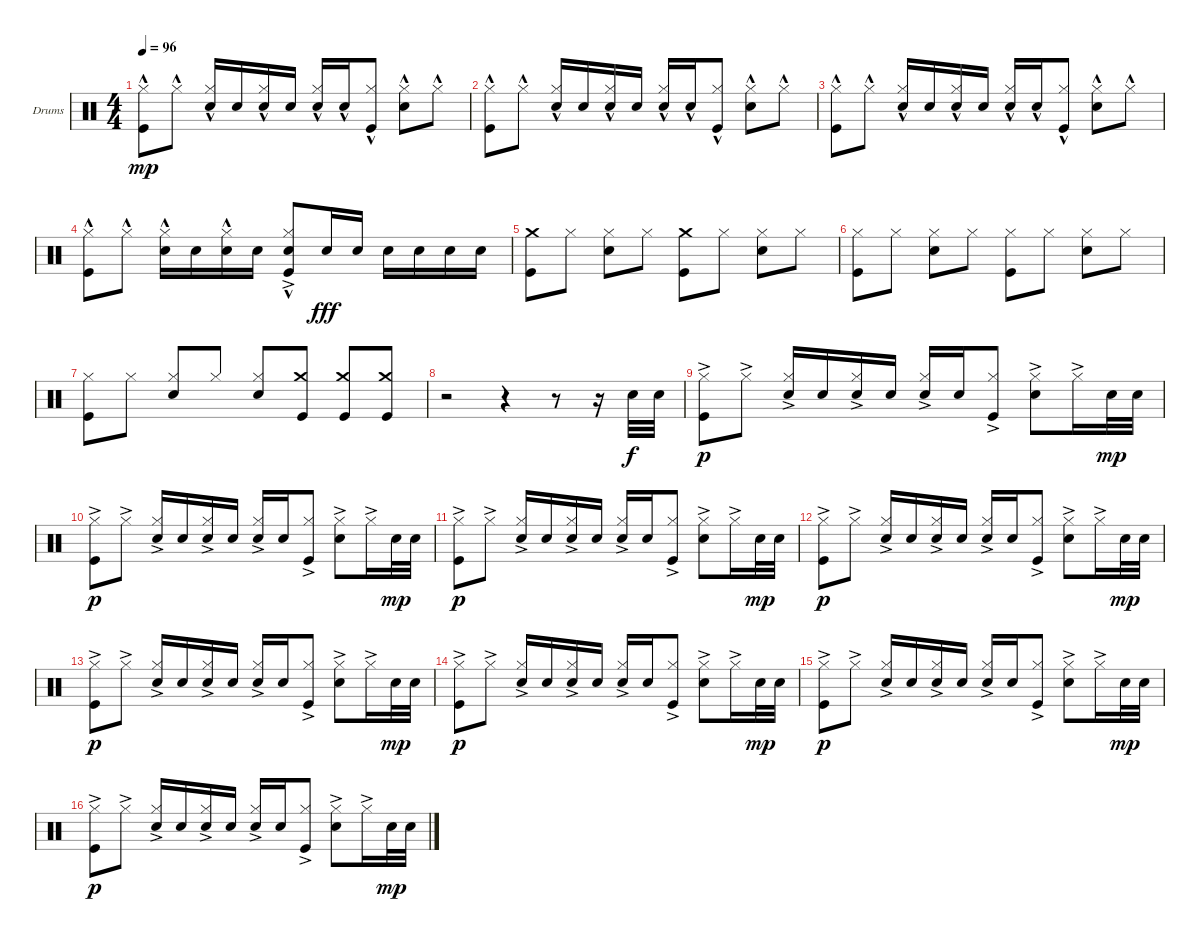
\defaultSystemsLayout 4
\bracketExtendMode groupsimilarinstruments
\firstSystemTrackNameOrientation horizontal
\otherSystemsTrackNameOrientation horizontal
\track ("Drumkit" "Drums") {instrument percussion}
\staff {score}
\articulation defaults
\ts (4 4)
\tempo 96
\clef neutral
\ks c
("Kick (hit)"{hac} "Hi-Hat (closed)"{hac}).8{dy mp} "Hi-Hat (closed)"{hac}.8 ("Hi-Hat (closed)"{hac} "Snare (hit) 2"{hac}).16 "Snare (hit) 2".16 ("Snare (hit) 2" "Hi-Hat (closed)"{hac}).16 "Snare (hit) 2".16 ("Hi-Hat (closed)"{hac} "Snare (hit) 2").16{beam invert} "Snare (hit) 2"{hac}.16 ("Hi-Hat (closed)"{hac} "Kick (hit)"{hac}).8 ("Snare (hit) 2"{hac} "Hi-Hat (closed)"{hac}).8 "Hi-Hat (closed)"{hac}.8 |
("Kick (hit)"{hac} "Hi-Hat (closed)"{hac}).8 "Hi-Hat (closed)"{hac}.8 ("Hi-Hat (closed)"{hac} "Snare (hit) 2"{hac}).16 "Snare (hit) 2".16 ("Snare (hit) 2" "Hi-Hat (closed)"{hac}).16 "Snare (hit) 2".16 ("Hi-Hat (closed)"{hac} "Snare (hit) 2").16{beam invert} "Snare (hit) 2"{hac}.16 ("Hi-Hat (closed)"{hac} "Kick (hit)"{hac}).8 ("Snare (hit) 2"{hac} "Hi-Hat (closed)"{hac}).8 "Hi-Hat (closed)"{hac}.8 |
("Kick (hit)"{hac} "Hi-Hat (closed)"{hac}).8 "Hi-Hat (closed)"{hac}.8 ("Hi-Hat (closed)"{hac} "Snare (hit) 2"{hac}).16 "Snare (hit) 2".16 ("Snare (hit) 2" "Hi-Hat (closed)"{hac}).16 "Snare (hit) 2".16 ("Hi-Hat (closed)"{hac} "Snare (hit) 2").16{beam invert} "Snare (hit) 2"{hac}.16 ("Hi-Hat (closed)"{hac} "Kick (hit)"{hac}).8 ("Snare (hit) 2"{hac} "Hi-Hat (closed)"{hac}).8 "Hi-Hat (closed)"{hac}.8 |
("Kick (hit)"{hac} "Hi-Hat (closed)"{hac}).8 "Hi-Hat (closed)"{hac}.8 ("Hi-Hat (closed)"{hac} "Snare (hit) 2"{hac}).16 "Snare (hit) 2".16 ("Snare (hit) 2" "Hi-Hat (closed)"{hac}).16 "Snare (hit) 2".16 ("Kick (hit)"{ac} "Snare (hit) 2" "Hi-Hat (closed)"{hac}).8 "Snare (hit) 2".16{dy fff} "Snare (hit) 2".16 "Snare (hit) 2".16 "Snare (hit) 2".16 "Snare (hit) 2".16 "Snare (hit) 2".16 |
("Crash medium (hit)" "Kick (hit)").8 "Hi-Hat (closed)".8 ("Hi-Hat (closed)" "Snare (hit) 2").8 "Hi-Hat (closed)".8 ("Crash medium (hit)" "Kick (hit)").8 "Hi-Hat (closed)".8 ("Hi-Hat (closed)" "Snare (hit) 2").8 "Hi-Hat (closed)".8 |
("Kick (hit)" "Hi-Hat (closed)").8 "Hi-Hat (closed)".8 ("Hi-Hat (closed)" "Snare (hit) 2").8 "Hi-Hat (closed)".8 ("Kick (hit)" "Hi-Hat (closed)").8 "Hi-Hat (closed)".8 ("Hi-Hat (closed)" "Snare (hit) 2").8 "Hi-Hat (closed)".8 |
("Kick (hit)" "Hi-Hat (closed)").8 "Hi-Hat (closed)".8 ("Hi-Hat (closed)" "Snare (hit) 2").8 "Hi-Hat (closed)".8 ("Hi-Hat (closed)" "Snare (hit) 2").8{beam invert} ("Crash medium (hit)" "Kick (hit)").8 ("Crash medium (hit)" "Kick (hit)").8{beam invert} ("Crash medium (hit)" "Kick (hit)").8 |
r.2 r.4 r.8 r.16 "Snare (hit) 2".32{dy f} "Snare (hit) 2".32 |
("Hi-Hat (closed)"{ac} "Kick (hit)"{ac}).8{dy p} "Hi-Hat (closed)"{ac}.8 ("Hi-Hat (closed)"{ac} "Snare (hit) 2"{ac}).16 "Snare (hit) 2".16 ("Snare (hit) 2" "Hi-Hat (closed)"{ac}).16 "Snare (hit) 2".16 ("Hi-Hat (closed)"{ac} "Snare (hit) 2").16{beam invert} "Snare (hit) 2".16 ("Hi-Hat (closed)"{ac} "Kick (hit)").8 ("Snare (hit) 2"{ac} "Hi-Hat (closed)"{ac}).8 "Hi-Hat (closed)"{ac}.16 "Snare (hit) 2".32{dy mp} "Snare (hit) 2".32 |
("Hi-Hat (closed)"{ac} "Kick (hit)"{ac}).8{dy p} "Hi-Hat (closed)"{ac}.8 ("Hi-Hat (closed)"{ac} "Snare (hit) 2"{ac}).16 "Snare (hit) 2".16 ("Snare (hit) 2" "Hi-Hat (closed)"{ac}).16 "Snare (hit) 2".16 ("Hi-Hat (closed)"{ac} "Snare (hit) 2").16{beam invert} "Snare (hit) 2".16 ("Hi-Hat (closed)"{ac} "Kick (hit)").8 ("Snare (hit) 2"{ac} "Hi-Hat (closed)"{ac}).8 "Hi-Hat (closed)"{ac}.16 "Snare (hit) 2".32{dy mp} "Snare (hit) 2".32 |
("Hi-Hat (closed)"{ac} "Kick (hit)"{ac}).8{dy p} "Hi-Hat (closed)"{ac}.8 ("Hi-Hat (closed)"{ac} "Snare (hit) 2"{ac}).16 "Snare (hit) 2".16 ("Snare (hit) 2" "Hi-Hat (closed)"{ac}).16 "Snare (hit) 2".16 ("Hi-Hat (closed)"{ac} "Snare (hit) 2").16{beam invert} "Snare (hit) 2".16 ("Hi-Hat (closed)"{ac} "Kick (hit)").8 ("Snare (hit) 2"{ac} "Hi-Hat (closed)"{ac}).8 "Hi-Hat (closed)"{ac}.16 "Snare (hit) 2".32{dy mp} "Snare (hit) 2".32 |
("Hi-Hat (closed)"{ac} "Kick (hit)"{ac}).8{dy p} "Hi-Hat (closed)"{ac}.8 ("Hi-Hat (closed)"{ac} "Snare (hit) 2"{ac}).16 "Snare (hit) 2".16 ("Snare (hit) 2" "Hi-Hat (closed)"{ac}).16 "Snare (hit) 2".16 ("Hi-Hat (closed)"{ac} "Snare (hit) 2").16{beam invert} "Snare (hit) 2".16 ("Hi-Hat (closed)"{ac} "Kick (hit)").8 ("Snare (hit) 2"{ac} "Hi-Hat (closed)"{ac}).8 "Hi-Hat (closed)"{ac}.16 "Snare (hit) 2".32{dy mp} "Snare (hit) 2".32 |
("Hi-Hat (closed)"{ac} "Kick (hit)"{ac}).8{dy p} "Hi-Hat (closed)"{ac}.8 ("Hi-Hat (closed)"{ac} "Snare (hit) 2"{ac}).16 "Snare (hit) 2".16 ("Snare (hit) 2" "Hi-Hat (closed)"{ac}).16 "Snare (hit) 2".16 ("Hi-Hat (closed)"{ac} "Snare (hit) 2").16{beam invert} "Snare (hit) 2".16 ("Hi-Hat (closed)"{ac} "Kick (hit)").8 ("Snare (hit) 2"{ac} "Hi-Hat (closed)"{ac}).8 "Hi-Hat (closed)"{ac}.16 "Snare (hit) 2".32{dy mp} "Snare (hit) 2".32 |
("Hi-Hat (closed)"{ac} "Kick (hit)"{ac}).8{dy p} "Hi-Hat (closed)"{ac}.8 ("Hi-Hat (closed)"{ac} "Snare (hit) 2"{ac}).16 "Snare (hit) 2".16 ("Snare (hit) 2" "Hi-Hat (closed)"{ac}).16 "Snare (hit) 2".16 ("Hi-Hat (closed)"{ac} "Snare (hit) 2").16{beam invert} "Snare (hit) 2".16 ("Hi-Hat (closed)"{ac} "Kick (hit)").8 ("Snare (hit) 2"{ac} "Hi-Hat (closed)"{ac}).8 "Hi-Hat (closed)"{ac}.16 "Snare (hit) 2".32{dy mp} "Snare (hit) 2".32 |
("Hi-Hat (closed)"{ac} "Kick (hit)"{ac}).8{dy p} "Hi-Hat (closed)"{ac}.8 ("Hi-Hat (closed)"{ac} "Snare (hit) 2"{ac}).16 "Snare (hit) 2".16 ("Snare (hit) 2" "Hi-Hat (closed)"{ac}).16 "Snare (hit) 2".16 ("Hi-Hat (closed)"{ac} "Snare (hit) 2").16{beam invert} "Snare (hit) 2".16 ("Hi-Hat (closed)"{ac} "Kick (hit)").8 ("Snare (hit) 2"{ac} "Hi-Hat (closed)"{ac}).8 "Hi-Hat (closed)"{ac}.16 "Snare (hit) 2".32{dy mp} "Snare (hit) 2".32 |
("Hi-Hat (closed)"{ac} "Kick (hit)"{ac}).8{dy p} "Hi-Hat (closed)"{ac}.8 ("Hi-Hat (closed)"{ac} "Snare (hit) 2"{ac}).16 "Snare (hit) 2".16 ("Snare (hit) 2" "Hi-Hat (closed)"{ac}).16 "Snare (hit) 2".16 ("Hi-Hat (closed)"{ac} "Snare (hit) 2").16{beam invert} "Snare (hit) 2".16 ("Hi-Hat (closed)"{ac} "Kick (hit)").8 ("Snare (hit) 2"{ac} "Hi-Hat (closed)"{ac}).8 "Hi-Hat (closed)"{ac}.16 "Snare (hit) 2".32{dy mp} "Snare (hit) 2".32
